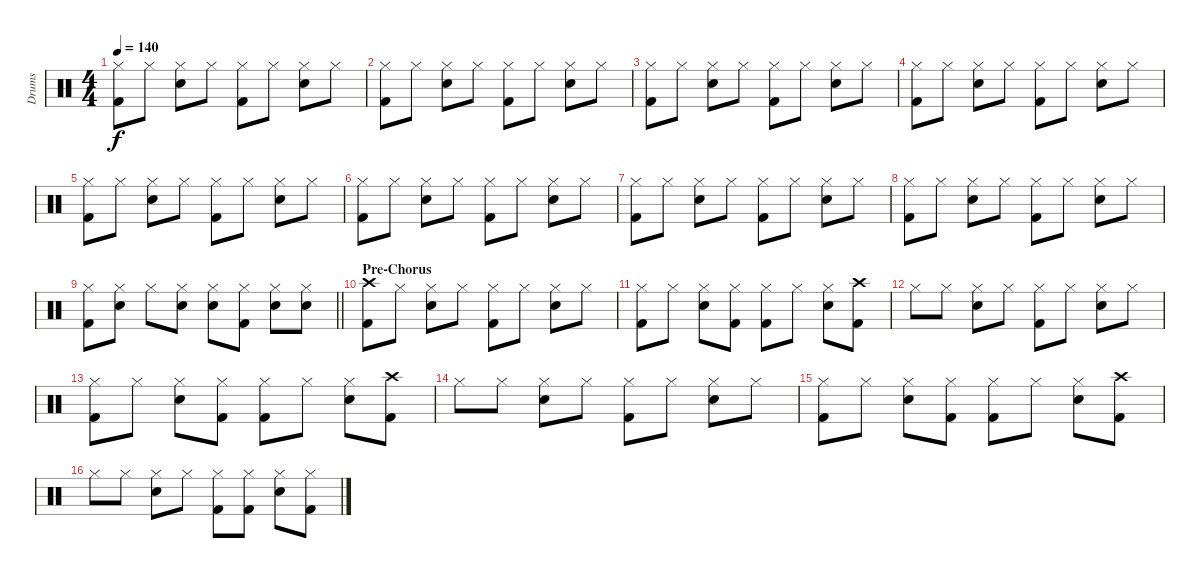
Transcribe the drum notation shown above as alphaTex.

\track ("Drums" "Drums") {instrument percussion}
\staff {score}
\articulation defaults
\ts (4 4)
\tempo 140
\clef neutral
\ks c
("Hi-Hat (closed)" "Kick (hit) 2").8{dy f} "Hi-Hat (closed)".8 ("Hi-Hat (closed)" "Snare (hit) 2").8 "Hi-Hat (closed)".8 ("Hi-Hat (closed)" "Kick (hit) 2").8 "Hi-Hat (closed)".8 ("Hi-Hat (closed)" "Snare (hit) 2").8 "Hi-Hat (closed)".8 |
("Hi-Hat (closed)" "Kick (hit) 2").8 "Hi-Hat (closed)".8 ("Hi-Hat (closed)" "Snare (hit) 2").8 "Hi-Hat (closed)".8 ("Hi-Hat (closed)" "Kick (hit) 2").8 "Hi-Hat (closed)".8 ("Hi-Hat (closed)" "Snare (hit) 2").8 "Hi-Hat (closed)".8 |
("Hi-Hat (closed)" "Kick (hit) 2").8 "Hi-Hat (closed)".8 ("Hi-Hat (closed)" "Snare (hit) 2").8 "Hi-Hat (closed)".8 ("Hi-Hat (closed)" "Kick (hit) 2").8 "Hi-Hat (closed)".8 ("Hi-Hat (closed)" "Snare (hit) 2").8 "Hi-Hat (closed)".8 |
("Hi-Hat (closed)" "Kick (hit) 2").8 "Hi-Hat (closed)".8 ("Hi-Hat (closed)" "Snare (hit) 2").8 "Hi-Hat (closed)".8 ("Hi-Hat (closed)" "Kick (hit) 2").8 "Hi-Hat (closed)".8 ("Hi-Hat (closed)" "Snare (hit) 2").8 "Hi-Hat (closed)".8 |
("Hi-Hat (closed)" "Kick (hit) 2").8 "Hi-Hat (closed)".8 ("Hi-Hat (closed)" "Snare (hit) 2").8 "Hi-Hat (closed)".8 ("Hi-Hat (closed)" "Kick (hit) 2").8 "Hi-Hat (closed)".8 ("Hi-Hat (closed)" "Snare (hit) 2").8 "Hi-Hat (closed)".8 |
("Hi-Hat (closed)" "Kick (hit) 2").8 "Hi-Hat (closed)".8 ("Hi-Hat (closed)" "Snare (hit) 2").8 "Hi-Hat (closed)".8 ("Hi-Hat (closed)" "Kick (hit) 2").8 "Hi-Hat (closed)".8 ("Hi-Hat (closed)" "Snare (hit) 2").8 "Hi-Hat (closed)".8 |
("Hi-Hat (closed)" "Kick (hit) 2").8 "Hi-Hat (closed)".8 ("Hi-Hat (closed)" "Snare (hit) 2").8 "Hi-Hat (closed)".8 ("Hi-Hat (closed)" "Kick (hit) 2").8 "Hi-Hat (closed)".8 ("Hi-Hat (closed)" "Snare (hit) 2").8 "Hi-Hat (closed)".8 |
("Hi-Hat (closed)" "Kick (hit) 2").8 "Hi-Hat (closed)".8 ("Hi-Hat (closed)" "Snare (hit) 2").8 "Hi-Hat (closed)".8 ("Hi-Hat (closed)" "Kick (hit) 2").8 "Hi-Hat (closed)".8 ("Hi-Hat (closed)" "Snare (hit) 2").8 "Hi-Hat (closed)".8 |
\barLineRight lightlight
("Hi-Hat (closed)" "Kick (hit) 2").8 ("Hi-Hat (closed)" "Snare (hit) 2").8 "Hi-Hat (closed)".8 ("Hi-Hat (closed)" "Snare (hit) 2").8 ("Hi-Hat (closed)" "Snare (hit) 2").8 ("Hi-Hat (closed)" "Kick (hit) 2").8 ("Hi-Hat (closed)" "Snare (hit) 2").8 ("Hi-Hat (closed)" "Snare (hit) 2").8 |
\section ("" "Pre-Chorus")
("Crash high (hit)" "Kick (hit) 2").8 "Hi-Hat (closed)".8 ("Hi-Hat (closed)" "Snare (hit) 2").8 "Hi-Hat (closed)".8 ("Hi-Hat (closed)" "Kick (hit) 2").8 "Hi-Hat (closed)".8 ("Hi-Hat (closed)" "Snare (hit) 2").8 "Hi-Hat (closed)".8 |
("Hi-Hat (closed)" "Kick (hit) 2").8 "Hi-Hat (closed)".8 ("Hi-Hat (closed)" "Snare (hit) 2").8 ("Hi-Hat (closed)" "Kick (hit) 2").8 ("Hi-Hat (closed)" "Kick (hit) 2").8 "Hi-Hat (closed)".8 ("Hi-Hat (closed)" "Snare (hit) 2").8 ("Crash high (hit)" "Kick (hit) 2").8 |
"Hi-Hat (closed)".8 "Hi-Hat (closed)".8 ("Hi-Hat (closed)" "Snare (hit) 2").8 "Hi-Hat (closed)".8 ("Hi-Hat (closed)" "Kick (hit) 2").8 "Hi-Hat (closed)".8 ("Hi-Hat (closed)" "Snare (hit) 2").8 "Hi-Hat (closed)".8 |
("Hi-Hat (closed)" "Kick (hit) 2").8 "Hi-Hat (closed)".8 ("Hi-Hat (closed)" "Snare (hit) 2").8 ("Hi-Hat (closed)" "Kick (hit) 2").8 ("Hi-Hat (closed)" "Kick (hit) 2").8 "Hi-Hat (closed)".8 ("Hi-Hat (closed)" "Snare (hit) 2").8 ("Crash high (hit)" "Kick (hit) 2").8 |
"Hi-Hat (closed)".8 "Hi-Hat (closed)".8 ("Hi-Hat (closed)" "Snare (hit) 2").8 "Hi-Hat (closed)".8 ("Hi-Hat (closed)" "Kick (hit) 2").8 "Hi-Hat (closed)".8 ("Hi-Hat (closed)" "Snare (hit) 2").8 "Hi-Hat (closed)".8 |
("Hi-Hat (closed)" "Kick (hit) 2").8 "Hi-Hat (closed)".8 ("Hi-Hat (closed)" "Snare (hit) 2").8 ("Hi-Hat (closed)" "Kick (hit) 2").8 ("Hi-Hat (closed)" "Kick (hit) 2").8 "Hi-Hat (closed)".8 ("Hi-Hat (closed)" "Snare (hit) 2").8 ("Crash high (hit)" "Kick (hit) 2").8 |
"Hi-Hat (closed)".8 "Hi-Hat (closed)".8 ("Hi-Hat (closed)" "Snare (hit) 2").8 "Hi-Hat (closed)".8 ("Hi-Hat (closed)" "Kick (hit) 2").8 ("Hi-Hat (closed)" "Kick (hit) 2").8 ("Hi-Hat (closed)" "Snare (hit) 2").8 ("Hi-Hat (closed)" "Kick (hit) 2").8
